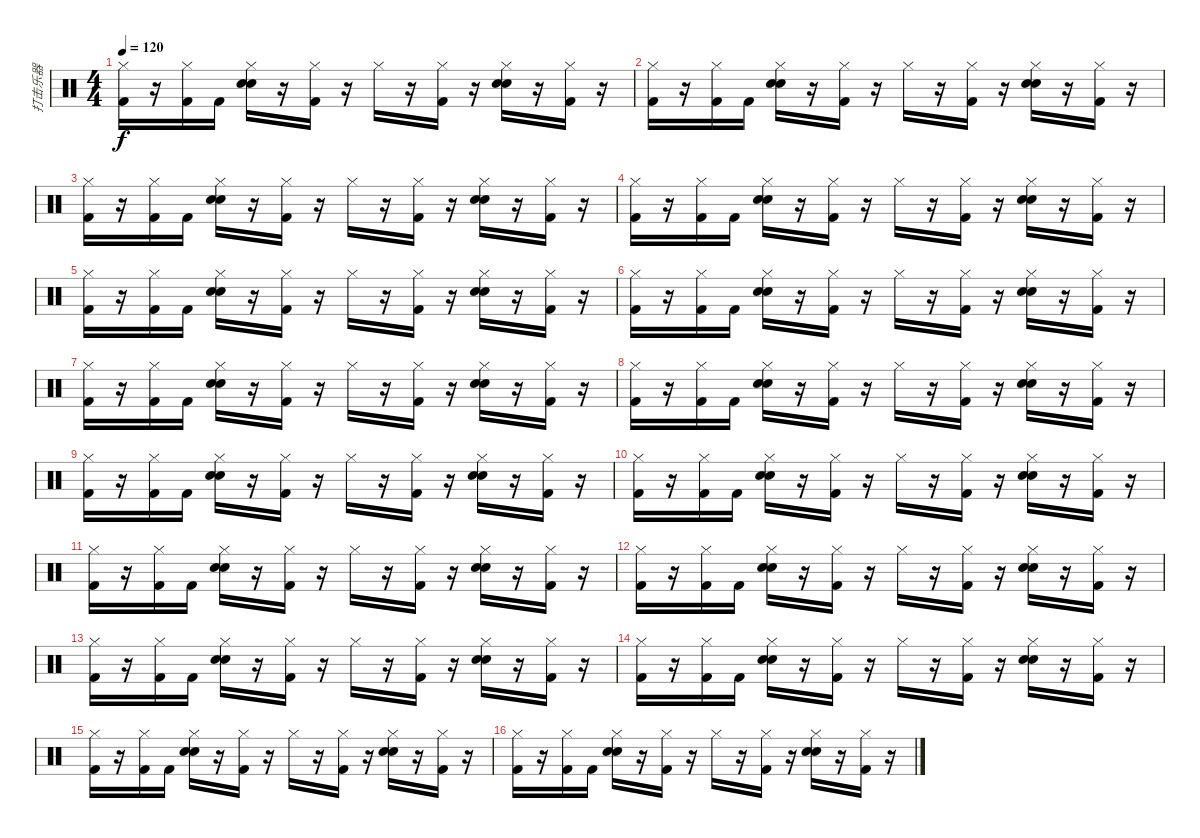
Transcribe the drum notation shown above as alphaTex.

\track ("打击乐器" "打击乐器") {instrument percussion}
\staff {score}
\articulation defaults
\ts (4 4)
\tempo 120
\clef neutral
\ks c
("Hi-Hat (closed)" "Kick (hit) 2").16{dy f} r.16 ("Hi-Hat (closed)" "Kick (hit) 2").16 "Kick (hit) 2".16 ("Hi-Hat (closed)" "Electric Snare (hit)" "Snare (hit) 2").16 r.16 ("Hi-Hat (closed)" "Kick (hit) 2").16 r.16 "Hi-Hat (closed)".16 r.16 ("Hi-Hat (closed)" "Kick (hit) 2").16 r.16 ("Hi-Hat (closed)" "Electric Snare (hit)" "Snare (hit) 2").16 r.16 ("Hi-Hat (closed)" "Kick (hit) 2").16 r.16 |
("Hi-Hat (closed)" "Kick (hit) 2").16 r.16 ("Hi-Hat (closed)" "Kick (hit) 2").16 "Kick (hit) 2".16 ("Hi-Hat (closed)" "Electric Snare (hit)" "Snare (hit) 2").16 r.16 ("Hi-Hat (closed)" "Kick (hit) 2").16 r.16 "Hi-Hat (closed)".16 r.16 ("Hi-Hat (closed)" "Kick (hit) 2").16 r.16 ("Hi-Hat (closed)" "Electric Snare (hit)" "Snare (hit) 2").16 r.16 ("Hi-Hat (closed)" "Kick (hit) 2").16 r.16 |
("Hi-Hat (closed)" "Kick (hit) 2").16 r.16 ("Hi-Hat (closed)" "Kick (hit) 2").16 "Kick (hit) 2".16 ("Hi-Hat (closed)" "Electric Snare (hit)" "Snare (hit) 2").16 r.16 ("Hi-Hat (closed)" "Kick (hit) 2").16 r.16 "Hi-Hat (closed)".16 r.16 ("Hi-Hat (closed)" "Kick (hit) 2").16 r.16 ("Hi-Hat (closed)" "Electric Snare (hit)" "Snare (hit) 2").16 r.16 ("Hi-Hat (closed)" "Kick (hit) 2").16 r.16 |
("Hi-Hat (closed)" "Kick (hit) 2").16 r.16 ("Hi-Hat (closed)" "Kick (hit) 2").16 "Kick (hit) 2".16 ("Hi-Hat (closed)" "Electric Snare (hit)" "Snare (hit) 2").16 r.16 ("Hi-Hat (closed)" "Kick (hit) 2").16 r.16 "Hi-Hat (closed)".16 r.16 ("Hi-Hat (closed)" "Kick (hit) 2").16 r.16 ("Hi-Hat (closed)" "Electric Snare (hit)" "Snare (hit) 2").16 r.16 ("Hi-Hat (closed)" "Kick (hit) 2").16 r.16 |
("Hi-Hat (closed)" "Kick (hit) 2").16 r.16 ("Hi-Hat (closed)" "Kick (hit) 2").16 "Kick (hit) 2".16 ("Hi-Hat (closed)" "Electric Snare (hit)" "Snare (hit) 2").16 r.16 ("Hi-Hat (closed)" "Kick (hit) 2").16 r.16 "Hi-Hat (closed)".16 r.16 ("Hi-Hat (closed)" "Kick (hit) 2").16 r.16 ("Hi-Hat (closed)" "Electric Snare (hit)" "Snare (hit) 2").16 r.16 ("Hi-Hat (closed)" "Kick (hit) 2").16 r.16 |
("Hi-Hat (closed)" "Kick (hit) 2").16 r.16 ("Hi-Hat (closed)" "Kick (hit) 2").16 "Kick (hit) 2".16 ("Hi-Hat (closed)" "Electric Snare (hit)" "Snare (hit) 2").16 r.16 ("Hi-Hat (closed)" "Kick (hit) 2").16 r.16 "Hi-Hat (closed)".16 r.16 ("Hi-Hat (closed)" "Kick (hit) 2").16 r.16 ("Hi-Hat (closed)" "Electric Snare (hit)" "Snare (hit) 2").16 r.16 ("Hi-Hat (closed)" "Kick (hit) 2").16 r.16 |
("Hi-Hat (closed)" "Kick (hit) 2").16 r.16 ("Hi-Hat (closed)" "Kick (hit) 2").16 "Kick (hit) 2".16 ("Hi-Hat (closed)" "Electric Snare (hit)" "Snare (hit) 2").16 r.16 ("Hi-Hat (closed)" "Kick (hit) 2").16 r.16 "Hi-Hat (closed)".16 r.16 ("Hi-Hat (closed)" "Kick (hit) 2").16 r.16 ("Hi-Hat (closed)" "Electric Snare (hit)" "Snare (hit) 2").16 r.16 ("Hi-Hat (closed)" "Kick (hit) 2").16 r.16 |
("Hi-Hat (closed)" "Kick (hit) 2").16 r.16 ("Hi-Hat (closed)" "Kick (hit) 2").16 "Kick (hit) 2".16 ("Hi-Hat (closed)" "Electric Snare (hit)" "Snare (hit) 2").16 r.16 ("Hi-Hat (closed)" "Kick (hit) 2").16 r.16 "Hi-Hat (closed)".16 r.16 ("Hi-Hat (closed)" "Kick (hit) 2").16 r.16 ("Hi-Hat (closed)" "Electric Snare (hit)" "Snare (hit) 2").16 r.16 ("Hi-Hat (closed)" "Kick (hit) 2").16 r.16 |
("Hi-Hat (closed)" "Kick (hit) 2").16 r.16 ("Hi-Hat (closed)" "Kick (hit) 2").16 "Kick (hit) 2".16 ("Hi-Hat (closed)" "Electric Snare (hit)" "Snare (hit) 2").16 r.16 ("Hi-Hat (closed)" "Kick (hit) 2").16 r.16 "Hi-Hat (closed)".16 r.16 ("Hi-Hat (closed)" "Kick (hit) 2").16 r.16 ("Hi-Hat (closed)" "Electric Snare (hit)" "Snare (hit) 2").16 r.16 ("Hi-Hat (closed)" "Kick (hit) 2").16 r.16 |
("Hi-Hat (closed)" "Kick (hit) 2").16 r.16 ("Hi-Hat (closed)" "Kick (hit) 2").16 "Kick (hit) 2".16 ("Hi-Hat (closed)" "Electric Snare (hit)" "Snare (hit) 2").16 r.16 ("Hi-Hat (closed)" "Kick (hit) 2").16 r.16 "Hi-Hat (closed)".16 r.16 ("Hi-Hat (closed)" "Kick (hit) 2").16 r.16 ("Hi-Hat (closed)" "Electric Snare (hit)" "Snare (hit) 2").16 r.16 ("Hi-Hat (closed)" "Kick (hit) 2").16 r.16 |
("Hi-Hat (closed)" "Kick (hit) 2").16 r.16 ("Hi-Hat (closed)" "Kick (hit) 2").16 "Kick (hit) 2".16 ("Hi-Hat (closed)" "Electric Snare (hit)" "Snare (hit) 2").16 r.16 ("Hi-Hat (closed)" "Kick (hit) 2").16 r.16 "Hi-Hat (closed)".16 r.16 ("Hi-Hat (closed)" "Kick (hit) 2").16 r.16 ("Hi-Hat (closed)" "Electric Snare (hit)" "Snare (hit) 2").16 r.16 ("Hi-Hat (closed)" "Kick (hit) 2").16 r.16 |
("Hi-Hat (closed)" "Kick (hit) 2").16 r.16 ("Hi-Hat (closed)" "Kick (hit) 2").16 "Kick (hit) 2".16 ("Hi-Hat (closed)" "Electric Snare (hit)" "Snare (hit) 2").16 r.16 ("Hi-Hat (closed)" "Kick (hit) 2").16 r.16 "Hi-Hat (closed)".16 r.16 ("Hi-Hat (closed)" "Kick (hit) 2").16 r.16 ("Hi-Hat (closed)" "Electric Snare (hit)" "Snare (hit) 2").16 r.16 ("Hi-Hat (closed)" "Kick (hit) 2").16 r.16 |
("Hi-Hat (closed)" "Kick (hit) 2").16 r.16 ("Hi-Hat (closed)" "Kick (hit) 2").16 "Kick (hit) 2".16 ("Hi-Hat (closed)" "Electric Snare (hit)" "Snare (hit) 2").16 r.16 ("Hi-Hat (closed)" "Kick (hit) 2").16 r.16 "Hi-Hat (closed)".16 r.16 ("Hi-Hat (closed)" "Kick (hit) 2").16 r.16 ("Hi-Hat (closed)" "Electric Snare (hit)" "Snare (hit) 2").16 r.16 ("Hi-Hat (closed)" "Kick (hit) 2").16 r.16 |
("Hi-Hat (closed)" "Kick (hit) 2").16 r.16 ("Hi-Hat (closed)" "Kick (hit) 2").16 "Kick (hit) 2".16 ("Hi-Hat (closed)" "Electric Snare (hit)" "Snare (hit) 2").16 r.16 ("Hi-Hat (closed)" "Kick (hit) 2").16 r.16 "Hi-Hat (closed)".16 r.16 ("Hi-Hat (closed)" "Kick (hit) 2").16 r.16 ("Hi-Hat (closed)" "Electric Snare (hit)" "Snare (hit) 2").16 r.16 ("Hi-Hat (closed)" "Kick (hit) 2").16 r.16 |
("Hi-Hat (closed)" "Kick (hit) 2").16 r.16 ("Hi-Hat (closed)" "Kick (hit) 2").16 "Kick (hit) 2".16 ("Hi-Hat (closed)" "Electric Snare (hit)" "Snare (hit) 2").16 r.16 ("Hi-Hat (closed)" "Kick (hit) 2").16 r.16 "Hi-Hat (closed)".16 r.16 ("Hi-Hat (closed)" "Kick (hit) 2").16 r.16 ("Hi-Hat (closed)" "Electric Snare (hit)" "Snare (hit) 2").16 r.16 ("Hi-Hat (closed)" "Kick (hit) 2").16 r.16 |
("Hi-Hat (closed)" "Kick (hit) 2").16 r.16 ("Hi-Hat (closed)" "Kick (hit) 2").16 "Kick (hit) 2".16 ("Hi-Hat (closed)" "Electric Snare (hit)" "Snare (hit) 2").16 r.16 ("Hi-Hat (closed)" "Kick (hit) 2").16 r.16 "Hi-Hat (closed)".16 r.16 ("Hi-Hat (closed)" "Kick (hit) 2").16 r.16 ("Hi-Hat (closed)" "Electric Snare (hit)" "Snare (hit) 2").16 r.16 ("Hi-Hat (closed)" "Kick (hit) 2").16 r.16
